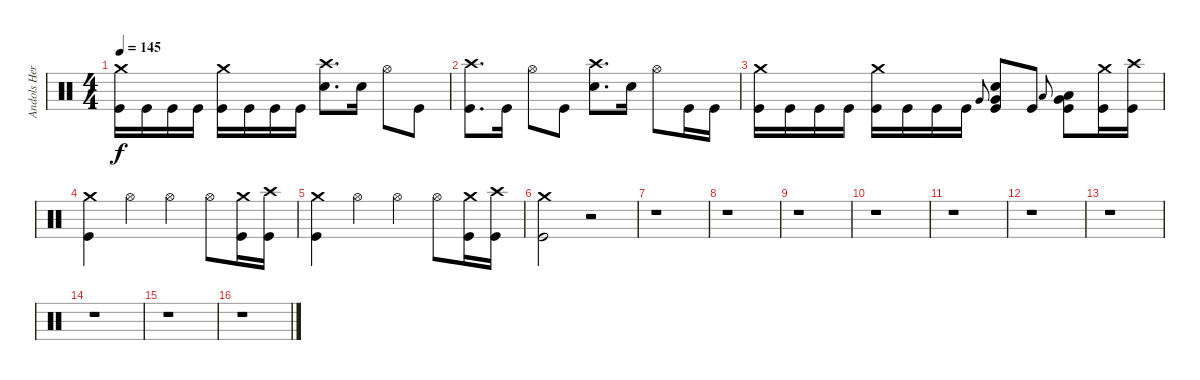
\track ("Andols Herrick" "Andols Her") {instrument percussion}
\staff
\articulation defaults
\ts (4 4)
\tempo 145
\clef neutral
\ks c
("Crash medium (hit)" "Kick (hit)").16{dy f} "Kick (hit)".16 "Kick (hit)".16 "Kick (hit)".16 ("Crash medium (hit)" "Kick (hit)").16 "Kick (hit)".16 "Kick (hit)".16 "Kick (hit)".16 ("Crash high (hit)" "Electric Snare (hit)").8{d} "Electric Snare (hit)".16 "Hi-Hat (open)".8 "Kick (hit)".8 |
("Crash high (hit)" "Kick (hit)").8{d} "Kick (hit)".16 "Hi-Hat (open)".8 "Kick (hit)".8 ("Crash high (hit)" "Electric Snare (hit)").8{d} "Electric Snare (hit)".16 "Hi-Hat (open)".8 "Kick (hit)".16 "Kick (hit)".16 |
("Crash medium (hit)" "Kick (hit)").16 "Kick (hit)".16 "Kick (hit)".16 "Kick (hit)".16 ("Crash medium (hit)" "Kick (hit)").16 "Kick (hit)".16 "Kick (hit)".16 "Kick (hit)".16 "Very Low Tom (hit)".8{gr onbeat} ("Very Low Tom (hit)" "Electric Snare (hit)" "Kick (hit)").8 "Kick (hit)".8 "Low Floor Tom (hit)".8{gr onbeat} ("Very Low Tom (hit)" "Low Floor Tom (hit)" "Kick (hit)").8 ("Crash medium (hit)" "Kick (hit)").16 ("Crash high (hit)" "Kick (hit)").16 |
("Crash medium (hit)" "Kick (hit)").4 "Hi-Hat (open)".4 "Hi-Hat (open)".4 "Hi-Hat (open)".8 ("Crash medium (hit)" "Kick (hit)").16 ("Crash high (hit)" "Kick (hit)").16 |
("Crash medium (hit)" "Kick (hit)").4 "Hi-Hat (open)".4 "Hi-Hat (open)".4 "Hi-Hat (open)".8 ("Crash medium (hit)" "Kick (hit)").16 ("Crash high (hit)" "Kick (hit)").16 |
("Crash medium (hit)" "Kick (hit)").2 r.2 |
r.1 |
r.1 |
r.1 |
r.1 |
r.1 |
r.1 |
r.1 |
r.1 |
r.1 |
r.1
